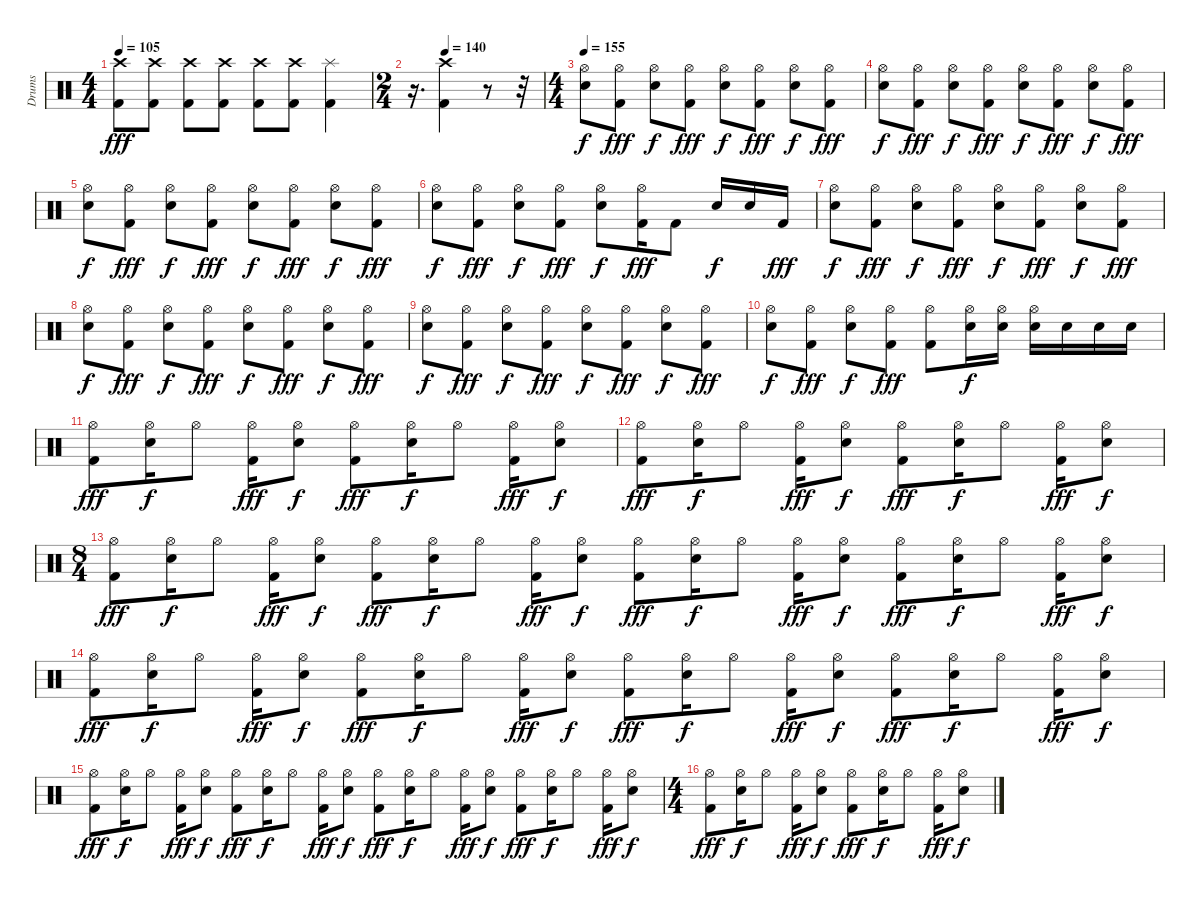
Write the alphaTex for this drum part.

\track ("Drums" "Drums") {instrument percussion}
\staff {score}
\articulation defaults
\ts (4 4)
\tempo 105
\clef neutral
\ks c
("Kick (hit) 2" "Crash high (hit)").8{dy fff} ("Kick (hit) 2" "Crash high (hit)").8 ("Kick (hit) 2" "Crash high (hit)").8 ("Kick (hit) 2" "Crash high (hit)").8 ("Kick (hit) 2" "Crash high (hit)").8 ("Kick (hit) 2" "Crash high (hit)").8 ("Kick (hit) 2" "Splash (hit)").4 |
\ts (2 4)
\tempo (140 0.25)
r.16{d} ("Kick (hit) 2" "Crash high (hit)").4 r.8 r.32 |
\ts (4 4)
\tempo 155
("Electric Snare (hit)" "Hi-Hat (open)").8{dy f} ("Kick (hit) 2" "Hi-Hat (open)").8{dy fff} ("Electric Snare (hit)" "Hi-Hat (open)").8{dy f} ("Kick (hit) 2" "Hi-Hat (open)").8{dy fff} ("Electric Snare (hit)" "Hi-Hat (open)").8{dy f} ("Kick (hit) 2" "Hi-Hat (open)").8{dy fff} ("Electric Snare (hit)" "Hi-Hat (open)").8{dy f} ("Kick (hit) 2" "Hi-Hat (open)").8{dy fff} |
("Electric Snare (hit)" "Hi-Hat (open)").8{dy f} ("Kick (hit) 2" "Hi-Hat (open)").8{dy fff} ("Electric Snare (hit)" "Hi-Hat (open)").8{dy f} ("Kick (hit) 2" "Hi-Hat (open)").8{dy fff} ("Electric Snare (hit)" "Hi-Hat (open)").8{dy f} ("Kick (hit) 2" "Hi-Hat (open)").8{dy fff} ("Electric Snare (hit)" "Hi-Hat (open)").8{dy f} ("Kick (hit) 2" "Hi-Hat (open)").8{dy fff} |
("Electric Snare (hit)" "Hi-Hat (open)").8{dy f} ("Kick (hit) 2" "Hi-Hat (open)").8{dy fff} ("Electric Snare (hit)" "Hi-Hat (open)").8{dy f} ("Kick (hit) 2" "Hi-Hat (open)").8{dy fff} ("Electric Snare (hit)" "Hi-Hat (open)").8{dy f} ("Kick (hit) 2" "Hi-Hat (open)").8{dy fff} ("Electric Snare (hit)" "Hi-Hat (open)").8{dy f} ("Kick (hit) 2" "Hi-Hat (open)").8{dy fff} |
("Electric Snare (hit)" "Hi-Hat (open)").8{dy f} ("Kick (hit) 2" "Hi-Hat (open)").8{dy fff} ("Electric Snare (hit)" "Hi-Hat (open)").8{dy f} ("Kick (hit) 2" "Hi-Hat (open)").8{dy fff} ("Electric Snare (hit)" "Hi-Hat (open)").8{dy f} ("Kick (hit) 2" "Hi-Hat (open)").16{dy fff} "Kick (hit) 2".8 "Electric Snare (hit)".16{dy f} "Electric Snare (hit)".16 "Kick (hit) 2".16{dy fff} |
("Electric Snare (hit)" "Hi-Hat (open)").8{dy f} ("Kick (hit) 2" "Hi-Hat (open)").8{dy fff} ("Electric Snare (hit)" "Hi-Hat (open)").8{dy f} ("Kick (hit) 2" "Hi-Hat (open)").8{dy fff} ("Electric Snare (hit)" "Hi-Hat (open)").8{dy f} ("Kick (hit) 2" "Hi-Hat (open)").8{dy fff} ("Electric Snare (hit)" "Hi-Hat (open)").8{dy f} ("Kick (hit) 2" "Hi-Hat (open)").8{dy fff} |
("Electric Snare (hit)" "Hi-Hat (open)").8{dy f} ("Kick (hit) 2" "Hi-Hat (open)").8{dy fff} ("Electric Snare (hit)" "Hi-Hat (open)").8{dy f} ("Kick (hit) 2" "Hi-Hat (open)").8{dy fff} ("Electric Snare (hit)" "Hi-Hat (open)").8{dy f} ("Kick (hit) 2" "Hi-Hat (open)").8{dy fff} ("Electric Snare (hit)" "Hi-Hat (open)").8{dy f} ("Kick (hit) 2" "Hi-Hat (open)").8{dy fff} |
("Electric Snare (hit)" "Hi-Hat (open)").8{dy f} ("Kick (hit) 2" "Hi-Hat (open)").8{dy fff} ("Electric Snare (hit)" "Hi-Hat (open)").8{dy f} ("Kick (hit) 2" "Hi-Hat (open)").8{dy fff} ("Electric Snare (hit)" "Hi-Hat (open)").8{dy f} ("Kick (hit) 2" "Hi-Hat (open)").8{dy fff} ("Electric Snare (hit)" "Hi-Hat (open)").8{dy f} ("Kick (hit) 2" "Hi-Hat (open)").8{dy fff} |
("Electric Snare (hit)" "Hi-Hat (open)").8{dy f} ("Kick (hit) 2" "Hi-Hat (open)").8{dy fff} ("Electric Snare (hit)" "Hi-Hat (open)").8{dy f} ("Kick (hit) 2" "Hi-Hat (open)").8{dy fff} ("Kick (hit) 2" "Hi-Hat (open)").8 ("Electric Snare (hit)" "Hi-Hat (open)").16{dy f} ("Electric Snare (hit)" "Hi-Hat (open)").16 ("Electric Snare (hit)" "Hi-Hat (open)").16 "Electric Snare (hit)".16 "Electric Snare (hit)".16 "Electric Snare (hit)".16 |
("Kick (hit) 2" "Hi-Hat (open)").8{dy fff} ("Electric Snare (hit)" "Hi-Hat (open)").16{dy f} "Hi-Hat (open)".8 ("Kick (hit) 2" "Hi-Hat (open)").16{dy fff} ("Electric Snare (hit)" "Hi-Hat (open)").8{dy f} ("Kick (hit) 2" "Hi-Hat (open)").8{dy fff} ("Electric Snare (hit)" "Hi-Hat (open)").16{dy f} "Hi-Hat (open)".8 ("Kick (hit) 2" "Hi-Hat (open)").16{dy fff} ("Electric Snare (hit)" "Hi-Hat (open)").8{dy f} |
("Kick (hit) 2" "Hi-Hat (open)").8{dy fff} ("Electric Snare (hit)" "Hi-Hat (open)").16{dy f} "Hi-Hat (open)".8 ("Kick (hit) 2" "Hi-Hat (open)").16{dy fff} ("Electric Snare (hit)" "Hi-Hat (open)").8{dy f} ("Kick (hit) 2" "Hi-Hat (open)").8{dy fff} ("Electric Snare (hit)" "Hi-Hat (open)").16{dy f} "Hi-Hat (open)".8 ("Kick (hit) 2" "Hi-Hat (open)").16{dy fff} ("Electric Snare (hit)" "Hi-Hat (open)").8{dy f} |
\ts (8 4)
("Kick (hit) 2" "Hi-Hat (open)").8{dy fff} ("Electric Snare (hit)" "Hi-Hat (open)").16{dy f} "Hi-Hat (open)".8 ("Kick (hit) 2" "Hi-Hat (open)").16{dy fff} ("Electric Snare (hit)" "Hi-Hat (open)").8{dy f} ("Kick (hit) 2" "Hi-Hat (open)").8{dy fff} ("Electric Snare (hit)" "Hi-Hat (open)").16{dy f} "Hi-Hat (open)".8 ("Kick (hit) 2" "Hi-Hat (open)").16{dy fff} ("Electric Snare (hit)" "Hi-Hat (open)").8{dy f} ("Kick (hit) 2" "Hi-Hat (open)").8{dy fff} ("Electric Snare (hit)" "Hi-Hat (open)").16{dy f} "Hi-Hat (open)".8 ("Kick (hit) 2" "Hi-Hat (open)").16{dy fff} ("Electric Snare (hit)" "Hi-Hat (open)").8{dy f} ("Kick (hit) 2" "Hi-Hat (open)").8{dy fff} ("Electric Snare (hit)" "Hi-Hat (open)").16{dy f} "Hi-Hat (open)".8 ("Kick (hit) 2" "Hi-Hat (open)").16{dy fff} ("Electric Snare (hit)" "Hi-Hat (open)").8{dy f} |
("Kick (hit) 2" "Hi-Hat (open)").8{dy fff} ("Electric Snare (hit)" "Hi-Hat (open)").16{dy f} "Hi-Hat (open)".8 ("Kick (hit) 2" "Hi-Hat (open)").16{dy fff} ("Electric Snare (hit)" "Hi-Hat (open)").8{dy f} ("Kick (hit) 2" "Hi-Hat (open)").8{dy fff} ("Electric Snare (hit)" "Hi-Hat (open)").16{dy f} "Hi-Hat (open)".8 ("Kick (hit) 2" "Hi-Hat (open)").16{dy fff} ("Electric Snare (hit)" "Hi-Hat (open)").8{dy f} ("Kick (hit) 2" "Hi-Hat (open)").8{dy fff} ("Electric Snare (hit)" "Hi-Hat (open)").16{dy f} "Hi-Hat (open)".8 ("Kick (hit) 2" "Hi-Hat (open)").16{dy fff} ("Electric Snare (hit)" "Hi-Hat (open)").8{dy f} ("Kick (hit) 2" "Hi-Hat (open)").8{dy fff} ("Electric Snare (hit)" "Hi-Hat (open)").16{dy f} "Hi-Hat (open)".8 ("Kick (hit) 2" "Hi-Hat (open)").16{dy fff} ("Electric Snare (hit)" "Hi-Hat (open)").8{dy f} |
("Kick (hit) 2" "Hi-Hat (open)").8{dy fff} ("Electric Snare (hit)" "Hi-Hat (open)").16{dy f} "Hi-Hat (open)".8 ("Kick (hit) 2" "Hi-Hat (open)").16{dy fff} ("Electric Snare (hit)" "Hi-Hat (open)").8{dy f} ("Kick (hit) 2" "Hi-Hat (open)").8{dy fff} ("Electric Snare (hit)" "Hi-Hat (open)").16{dy f} "Hi-Hat (open)".8 ("Kick (hit) 2" "Hi-Hat (open)").16{dy fff} ("Electric Snare (hit)" "Hi-Hat (open)").8{dy f} ("Kick (hit) 2" "Hi-Hat (open)").8{dy fff} ("Electric Snare (hit)" "Hi-Hat (open)").16{dy f} "Hi-Hat (open)".8 ("Kick (hit) 2" "Hi-Hat (open)").16{dy fff} ("Electric Snare (hit)" "Hi-Hat (open)").8{dy f} ("Kick (hit) 2" "Hi-Hat (open)").8{dy fff} ("Electric Snare (hit)" "Hi-Hat (open)").16{dy f} "Hi-Hat (open)".8 ("Kick (hit) 2" "Hi-Hat (open)").16{dy fff} ("Electric Snare (hit)" "Hi-Hat (open)").8{dy f} |
\ts (4 4)
("Kick (hit) 2" "Hi-Hat (open)").8{dy fff} ("Electric Snare (hit)" "Hi-Hat (open)").16{dy f} "Hi-Hat (open)".8 ("Kick (hit) 2" "Hi-Hat (open)").16{dy fff} ("Electric Snare (hit)" "Hi-Hat (open)").8{dy f} ("Kick (hit) 2" "Hi-Hat (open)").8{dy fff} ("Electric Snare (hit)" "Hi-Hat (open)").16{dy f} "Hi-Hat (open)".8 ("Kick (hit) 2" "Hi-Hat (open)").16{dy fff} ("Electric Snare (hit)" "Hi-Hat (open)").8{dy f}
